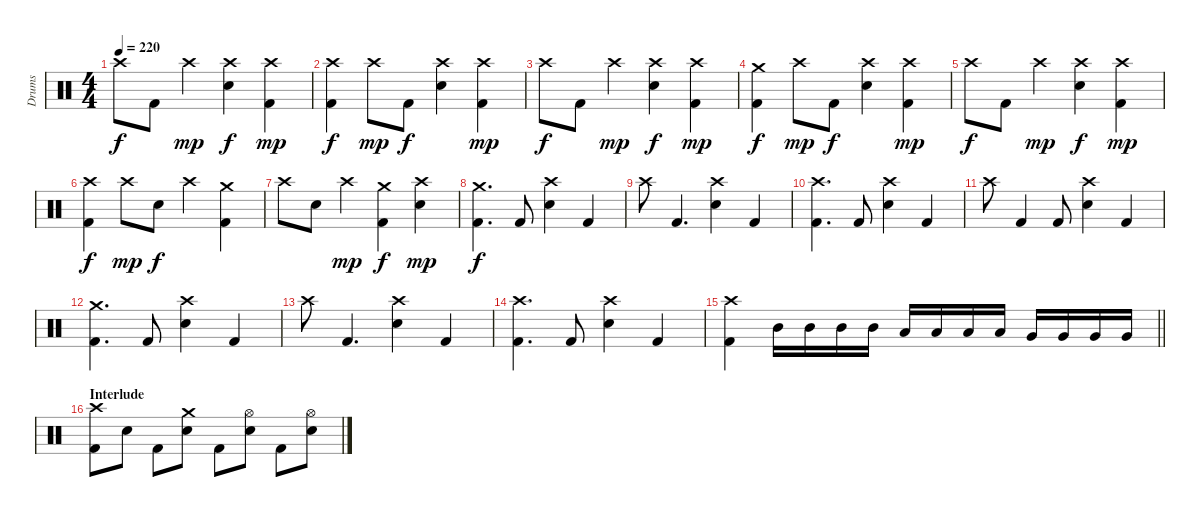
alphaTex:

\track ("Drums" "Drums") {instrument percussion}
\staff {score}
\articulation defaults
\ts (4 4)
\tempo 220
\clef neutral
\ks c "Crash high (hit)".8{dy f} "Kick (hit) 2".8 "Crash high (hit)".4{dy mp}
("Electric Snare (hit)" "Crash high (hit)").4{dy f} ("Kick (hit) 2" "Crash high (hit)").4{dy mp} |
("Kick (hit) 2" "Crash high (hit)").4{dy f} "Crash high (hit)".8{dy mp} "Kick (hit) 2".8{dy f} ("Crash high (hit)" "Electric Snare (hit)").4 ("Crash high (hit)" "Kick (hit) 2").4{dy mp} |
"Crash high (hit)".8{dy f} "Kick (hit) 2".8 "Crash high (hit)".4{dy mp} ("Electric Snare (hit)" "Crash high (hit)").4{dy f} ("Kick (hit) 2" "Crash high (hit)").4{dy mp} |
("Kick (hit) 2" "Crash medium (hit)").4{dy f} "Crash high (hit)".8{dy mp} "Kick (hit) 2".8{dy f} ("Crash high (hit)" "Electric Snare (hit)").4 ("Crash high (hit)" "Kick (hit) 2").4{dy mp} |
"Crash high (hit)".8{dy f} "Kick (hit) 2".8 "Crash high (hit)".4{dy mp} ("Electric Snare (hit)" "Crash high (hit)").4{dy f} ("Kick (hit) 2" "Crash high (hit)").4{dy mp} |
("Crash high (hit)" "Kick (hit) 2").4{dy f} "Crash high (hit)".8{dy mp} "Electric Snare (hit)".8{dy f} "Crash high (hit)".4 ("Kick (hit) 2" "Crash medium (hit)").4 |
"Crash high (hit)".8 "Electric Snare (hit)".8 "Crash high (hit)".4{dy mp} ("Kick (hit) 2" "Crash medium (hit)").4{dy f} ("Electric Snare (hit)" "Crash high (hit)").4{dy mp} |
("Crash medium (hit)" "Kick (hit) 2").4{d dy f} "Kick (hit) 2".8 ("Crash high (hit)" "Electric Snare (hit)").4 "Kick (hit) 2".4 |
"Crash high (hit)".8 "Kick (hit) 2".4{d} ("Electric Snare (hit)" "Crash high (hit)").4 "Kick (hit) 2".4 |
("Crash high (hit)" "Kick (hit) 2").4{d} "Kick (hit) 2".8 ("Crash high (hit)" "Electric Snare (hit)").4 "Kick (hit) 2".4 |
"Crash high (hit)".8 "Kick (hit) 2".4 "Kick (hit) 2".8 ("Electric Snare (hit)" "Crash high (hit)").4 "Kick (hit) 2".4 |
("Crash medium (hit)" "Kick (hit) 2").4{d} "Kick (hit) 2".8 ("Crash high (hit)" "Electric Snare (hit)").4 "Kick (hit) 2".4 |
"Crash high (hit)".8 "Kick (hit) 2".4{d} ("Electric Snare (hit)" "Crash high (hit)").4 "Kick (hit) 2".4 |
("Crash high (hit)" "Kick (hit) 2").4{d} "Kick (hit) 2".8 ("Crash high (hit)" "Electric Snare (hit)").4 "Kick (hit) 2".4 |
\barLineRight lightlight
("Crash high (hit)" "Kick (hit) 2").4 "Mid Tom (hit)".16 "Mid Tom (hit)".16 "Mid Tom (hit)".16 "Mid Tom (hit)".16 "Low Tom (hit)".16 "Low Tom (hit)".16 "Low Tom (hit)".16 "Low Tom (hit)".16 "Very Low Tom (hit)".16 "Very Low Tom (hit)".16 "Very Low Tom (hit)".16 "Very Low Tom (hit)".16 |
\section ("" "Interlude")
("Crash high (hit)" "Kick (hit) 2").8 "Electric Snare (hit)".8 "Kick (hit) 2".8 ("Electric Snare (hit)" "Crash medium (hit)").8 "Kick (hit) 2".8 ("Electric Snare (hit)" "Hi-Hat (open)").8 "Kick (hit) 2".8 ("Electric Snare (hit)" "Hi-Hat (open)").8
